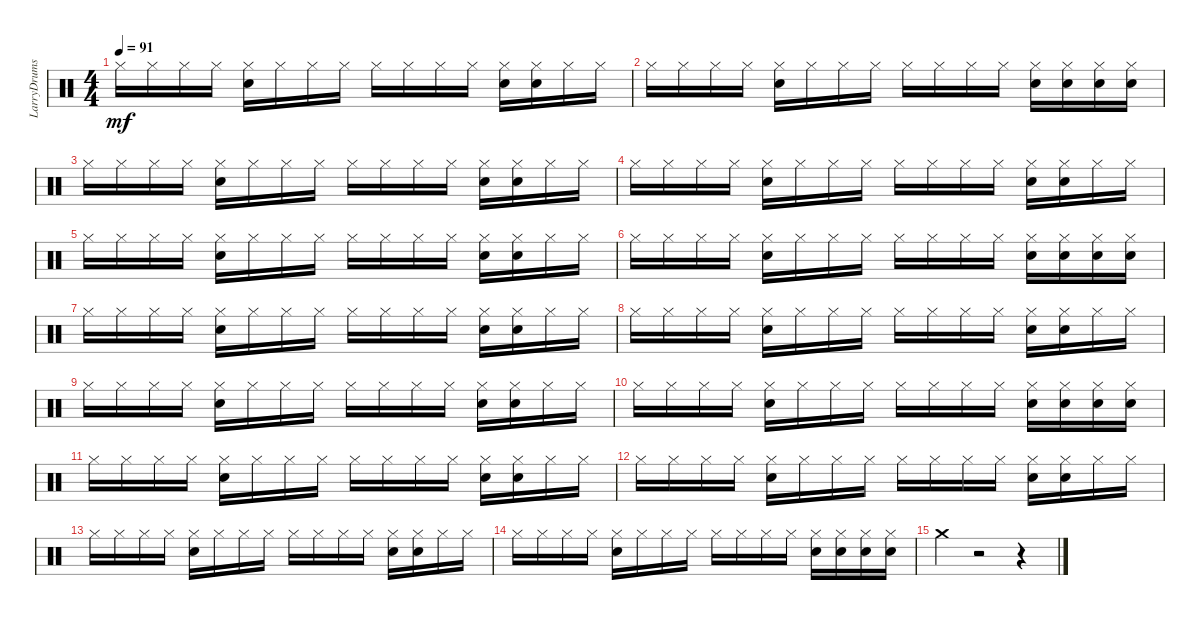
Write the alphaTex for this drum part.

\track ("LarryDrums2" "LarryDrums") {instrument percussion}
\staff {score}
\articulation defaults
\ts (4 4)
\tempo 91
\clef neutral
\ks c "Hi-Hat (closed)".16{dy mf} "Hi-Hat (closed)".16 "Hi-Hat (closed)".16 "Hi-Hat (closed)".16
("Hi-Hat (closed)" "Electric Snare (hit)").16 "Hi-Hat (closed)".16 "Hi-Hat (closed)".16 "Hi-Hat (closed)".16 "Hi-Hat (closed)".16 "Hi-Hat (closed)".16 "Hi-Hat (closed)".16 "Hi-Hat (closed)".16 ("Hi-Hat (closed)" "Electric Snare (hit)").16 ("Hi-Hat (closed)" "Electric Snare (hit)").16 "Hi-Hat (closed)".16 "Hi-Hat (closed)".16 |
"Hi-Hat (closed)".16 "Hi-Hat (closed)".16 "Hi-Hat (closed)".16 "Hi-Hat (closed)".16 ("Hi-Hat (closed)" "Electric Snare (hit)").16 "Hi-Hat (closed)".16 "Hi-Hat (closed)".16 "Hi-Hat (closed)".16 "Hi-Hat (closed)".16 "Hi-Hat (closed)".16 "Hi-Hat (closed)".16 "Hi-Hat (closed)".16 ("Hi-Hat (closed)" "Electric Snare (hit)").16 ("Hi-Hat (closed)" "Electric Snare (hit)").16 ("Hi-Hat (closed)" "Electric Snare (hit)").16 ("Hi-Hat (closed)" "Electric Snare (hit)").16 |
"Hi-Hat (closed)".16 "Hi-Hat (closed)".16 "Hi-Hat (closed)".16 "Hi-Hat (closed)".16 ("Hi-Hat (closed)" "Electric Snare (hit)").16 "Hi-Hat (closed)".16 "Hi-Hat (closed)".16 "Hi-Hat (closed)".16 "Hi-Hat (closed)".16 "Hi-Hat (closed)".16 "Hi-Hat (closed)".16 "Hi-Hat (closed)".16 ("Hi-Hat (closed)" "Electric Snare (hit)").16 ("Hi-Hat (closed)" "Electric Snare (hit)").16 "Hi-Hat (closed)".16 "Hi-Hat (closed)".16 |
"Hi-Hat (closed)".16 "Hi-Hat (closed)".16 "Hi-Hat (closed)".16 "Hi-Hat (closed)".16 ("Hi-Hat (closed)" "Electric Snare (hit)").16 "Hi-Hat (closed)".16 "Hi-Hat (closed)".16 "Hi-Hat (closed)".16 "Hi-Hat (closed)".16 "Hi-Hat (closed)".16 "Hi-Hat (closed)".16 "Hi-Hat (closed)".16 ("Hi-Hat (closed)" "Electric Snare (hit)").16 ("Hi-Hat (closed)" "Electric Snare (hit)").16 "Hi-Hat (closed)".16 "Hi-Hat (closed)".16 |
"Hi-Hat (closed)".16 "Hi-Hat (closed)".16 "Hi-Hat (closed)".16 "Hi-Hat (closed)".16 ("Hi-Hat (closed)" "Electric Snare (hit)").16 "Hi-Hat (closed)".16 "Hi-Hat (closed)".16 "Hi-Hat (closed)".16 "Hi-Hat (closed)".16 "Hi-Hat (closed)".16 "Hi-Hat (closed)".16 "Hi-Hat (closed)".16 ("Hi-Hat (closed)" "Electric Snare (hit)").16 ("Hi-Hat (closed)" "Electric Snare (hit)").16 "Hi-Hat (closed)".16 "Hi-Hat (closed)".16 |
"Hi-Hat (closed)".16 "Hi-Hat (closed)".16 "Hi-Hat (closed)".16 "Hi-Hat (closed)".16 ("Hi-Hat (closed)" "Electric Snare (hit)").16 "Hi-Hat (closed)".16 "Hi-Hat (closed)".16 "Hi-Hat (closed)".16 "Hi-Hat (closed)".16 "Hi-Hat (closed)".16 "Hi-Hat (closed)".16 "Hi-Hat (closed)".16 ("Hi-Hat (closed)" "Electric Snare (hit)").16 ("Hi-Hat (closed)" "Electric Snare (hit)").16 ("Hi-Hat (closed)" "Electric Snare (hit)").16 ("Hi-Hat (closed)" "Electric Snare (hit)").16 |
"Hi-Hat (closed)".16 "Hi-Hat (closed)".16 "Hi-Hat (closed)".16 "Hi-Hat (closed)".16 ("Hi-Hat (closed)" "Electric Snare (hit)").16 "Hi-Hat (closed)".16 "Hi-Hat (closed)".16 "Hi-Hat (closed)".16 "Hi-Hat (closed)".16 "Hi-Hat (closed)".16 "Hi-Hat (closed)".16 "Hi-Hat (closed)".16 ("Hi-Hat (closed)" "Electric Snare (hit)").16 ("Hi-Hat (closed)" "Electric Snare (hit)").16 "Hi-Hat (closed)".16 "Hi-Hat (closed)".16 |
"Hi-Hat (closed)".16 "Hi-Hat (closed)".16 "Hi-Hat (closed)".16 "Hi-Hat (closed)".16 ("Hi-Hat (closed)" "Electric Snare (hit)").16 "Hi-Hat (closed)".16 "Hi-Hat (closed)".16 "Hi-Hat (closed)".16 "Hi-Hat (closed)".16 "Hi-Hat (closed)".16 "Hi-Hat (closed)".16 "Hi-Hat (closed)".16 ("Hi-Hat (closed)" "Electric Snare (hit)").16 ("Hi-Hat (closed)" "Electric Snare (hit)").16 "Hi-Hat (closed)".16 "Hi-Hat (closed)".16 |
"Hi-Hat (closed)".16 "Hi-Hat (closed)".16 "Hi-Hat (closed)".16 "Hi-Hat (closed)".16 ("Hi-Hat (closed)" "Electric Snare (hit)").16 "Hi-Hat (closed)".16 "Hi-Hat (closed)".16 "Hi-Hat (closed)".16 "Hi-Hat (closed)".16 "Hi-Hat (closed)".16 "Hi-Hat (closed)".16 "Hi-Hat (closed)".16 ("Hi-Hat (closed)" "Electric Snare (hit)").16 ("Hi-Hat (closed)" "Electric Snare (hit)").16 "Hi-Hat (closed)".16 "Hi-Hat (closed)".16 |
"Hi-Hat (closed)".16 "Hi-Hat (closed)".16 "Hi-Hat (closed)".16 "Hi-Hat (closed)".16 ("Hi-Hat (closed)" "Electric Snare (hit)").16 "Hi-Hat (closed)".16 "Hi-Hat (closed)".16 "Hi-Hat (closed)".16 "Hi-Hat (closed)".16 "Hi-Hat (closed)".16 "Hi-Hat (closed)".16 "Hi-Hat (closed)".16 ("Hi-Hat (closed)" "Electric Snare (hit)").16 ("Hi-Hat (closed)" "Electric Snare (hit)").16 ("Hi-Hat (closed)" "Electric Snare (hit)").16 ("Hi-Hat (closed)" "Electric Snare (hit)").16 |
"Hi-Hat (closed)".16 "Hi-Hat (closed)".16 "Hi-Hat (closed)".16 "Hi-Hat (closed)".16 ("Hi-Hat (closed)" "Electric Snare (hit)").16 "Hi-Hat (closed)".16 "Hi-Hat (closed)".16 "Hi-Hat (closed)".16 "Hi-Hat (closed)".16 "Hi-Hat (closed)".16 "Hi-Hat (closed)".16 "Hi-Hat (closed)".16 ("Hi-Hat (closed)" "Electric Snare (hit)").16 ("Hi-Hat (closed)" "Electric Snare (hit)").16 "Hi-Hat (closed)".16 "Hi-Hat (closed)".16 |
"Hi-Hat (closed)".16 "Hi-Hat (closed)".16 "Hi-Hat (closed)".16 "Hi-Hat (closed)".16 ("Hi-Hat (closed)" "Electric Snare (hit)").16 "Hi-Hat (closed)".16 "Hi-Hat (closed)".16 "Hi-Hat (closed)".16 "Hi-Hat (closed)".16 "Hi-Hat (closed)".16 "Hi-Hat (closed)".16 "Hi-Hat (closed)".16 ("Hi-Hat (closed)" "Electric Snare (hit)").16 ("Hi-Hat (closed)" "Electric Snare (hit)").16 "Hi-Hat (closed)".16 "Hi-Hat (closed)".16 |
"Hi-Hat (closed)".16 "Hi-Hat (closed)".16 "Hi-Hat (closed)".16 "Hi-Hat (closed)".16 ("Hi-Hat (closed)" "Electric Snare (hit)").16 "Hi-Hat (closed)".16 "Hi-Hat (closed)".16 "Hi-Hat (closed)".16 "Hi-Hat (closed)".16 "Hi-Hat (closed)".16 "Hi-Hat (closed)".16 "Hi-Hat (closed)".16 ("Hi-Hat (closed)" "Electric Snare (hit)").16 ("Hi-Hat (closed)" "Electric Snare (hit)").16 "Hi-Hat (closed)".16 "Hi-Hat (closed)".16 |
"Hi-Hat (closed)".16 "Hi-Hat (closed)".16 "Hi-Hat (closed)".16 "Hi-Hat (closed)".16 ("Hi-Hat (closed)" "Electric Snare (hit)").16 "Hi-Hat (closed)".16 "Hi-Hat (closed)".16 "Hi-Hat (closed)".16 "Hi-Hat (closed)".16 "Hi-Hat (closed)".16 "Hi-Hat (closed)".16 "Hi-Hat (closed)".16 ("Hi-Hat (closed)" "Electric Snare (hit)").16 ("Hi-Hat (closed)" "Electric Snare (hit)").16 ("Hi-Hat (closed)" "Electric Snare (hit)").16 ("Hi-Hat (closed)" "Electric Snare (hit)").16 |
"Crash medium (hit)".4 r.2 r.4
